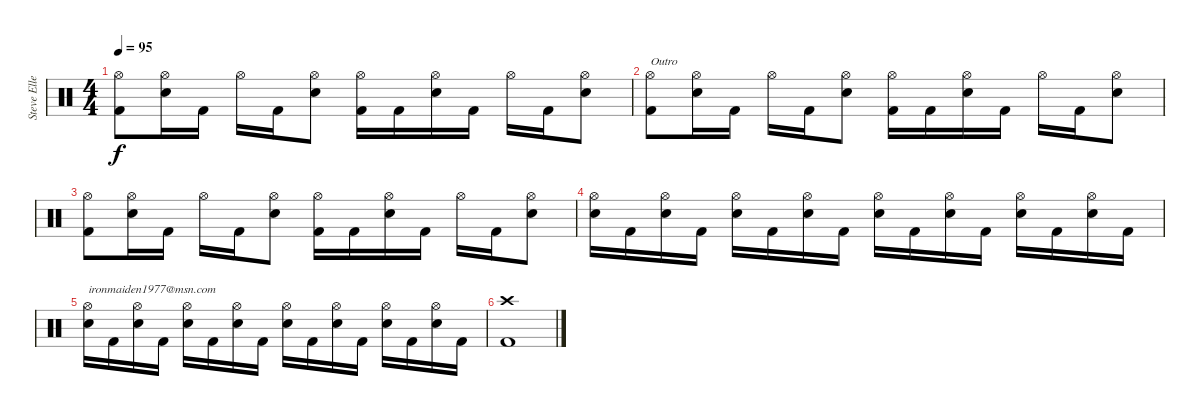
\track ("Steve Ellett" "Steve Elle") {instrument percussion}
\staff {score}
\articulation defaults
\ts (4 4)
\tempo 95
\clef neutral
\ks c
("Hi-Hat (open)" "Kick (hit) 2").8{dy f} ("Hi-Hat (open)" "Snare (hit) 2").16 "Kick (hit) 2".16 "Hi-Hat (open)".16 "Kick (hit) 2".16 ("Hi-Hat (open)" "Snare (hit) 2").8 ("Hi-Hat (open)" "Kick (hit) 2").16 "Kick (hit) 2".16 ("Hi-Hat (open)" "Snare (hit) 2").16 "Kick (hit) 2".16 "Hi-Hat (open)".16 "Kick (hit) 2".16 ("Hi-Hat (open)" "Snare (hit) 2").8 |
("Hi-Hat (open)" "Kick (hit) 2").8{txt "Outro"} ("Hi-Hat (open)" "Snare (hit) 2").16 "Kick (hit) 2".16 "Hi-Hat (open)".16 "Kick (hit) 2".16 ("Hi-Hat (open)" "Snare (hit) 2").8 ("Hi-Hat (open)" "Kick (hit) 2").16 "Kick (hit) 2".16 ("Hi-Hat (open)" "Snare (hit) 2").16 "Kick (hit) 2".16 "Hi-Hat (open)".16 "Kick (hit) 2".16 ("Hi-Hat (open)" "Snare (hit) 2").8 |
("Hi-Hat (open)" "Kick (hit) 2").8 ("Hi-Hat (open)" "Snare (hit) 2").16 "Kick (hit) 2".16 "Hi-Hat (open)".16 "Kick (hit) 2".16 ("Hi-Hat (open)" "Snare (hit) 2").8 ("Hi-Hat (open)" "Kick (hit) 2").16 "Kick (hit) 2".16 ("Hi-Hat (open)" "Snare (hit) 2").16 "Kick (hit) 2".16 "Hi-Hat (open)".16 "Kick (hit) 2".16 ("Hi-Hat (open)" "Snare (hit) 2").8 |
("Hi-Hat (open)" "Snare (hit) 2").16 "Kick (hit) 2".16 ("Hi-Hat (open)" "Snare (hit) 2").16 "Kick (hit) 2".16 ("Hi-Hat (open)" "Snare (hit) 2").16 "Kick (hit) 2".16 ("Hi-Hat (open)" "Snare (hit) 2").16 "Kick (hit) 2".16 ("Hi-Hat (open)" "Snare (hit) 2").16 "Kick (hit) 2".16 ("Hi-Hat (open)" "Snare (hit) 2").16 "Kick (hit) 2".16 ("Hi-Hat (open)" "Snare (hit) 2").16 "Kick (hit) 2".16 ("Hi-Hat (open)" "Snare (hit) 2").16 "Kick (hit) 2".16 |
("Hi-Hat (open)" "Snare (hit) 2").16{txt "ironmaiden1977@msn.com"} "Kick (hit) 2".16 ("Hi-Hat (open)" "Snare (hit) 2").16 "Kick (hit) 2".16 ("Hi-Hat (open)" "Snare (hit) 2").16 "Kick (hit) 2".16 ("Hi-Hat (open)" "Snare (hit) 2").16 "Kick (hit) 2".16 ("Hi-Hat (open)" "Snare (hit) 2").16 "Kick (hit) 2".16 ("Hi-Hat (open)" "Snare (hit) 2").16 "Kick (hit) 2".16 ("Hi-Hat (open)" "Snare (hit) 2").16 "Kick (hit) 2".16 ("Hi-Hat (open)" "Snare (hit) 2").16 "Kick (hit) 2".16 |
("Crash high (hit)" "Kick (hit) 2").1
